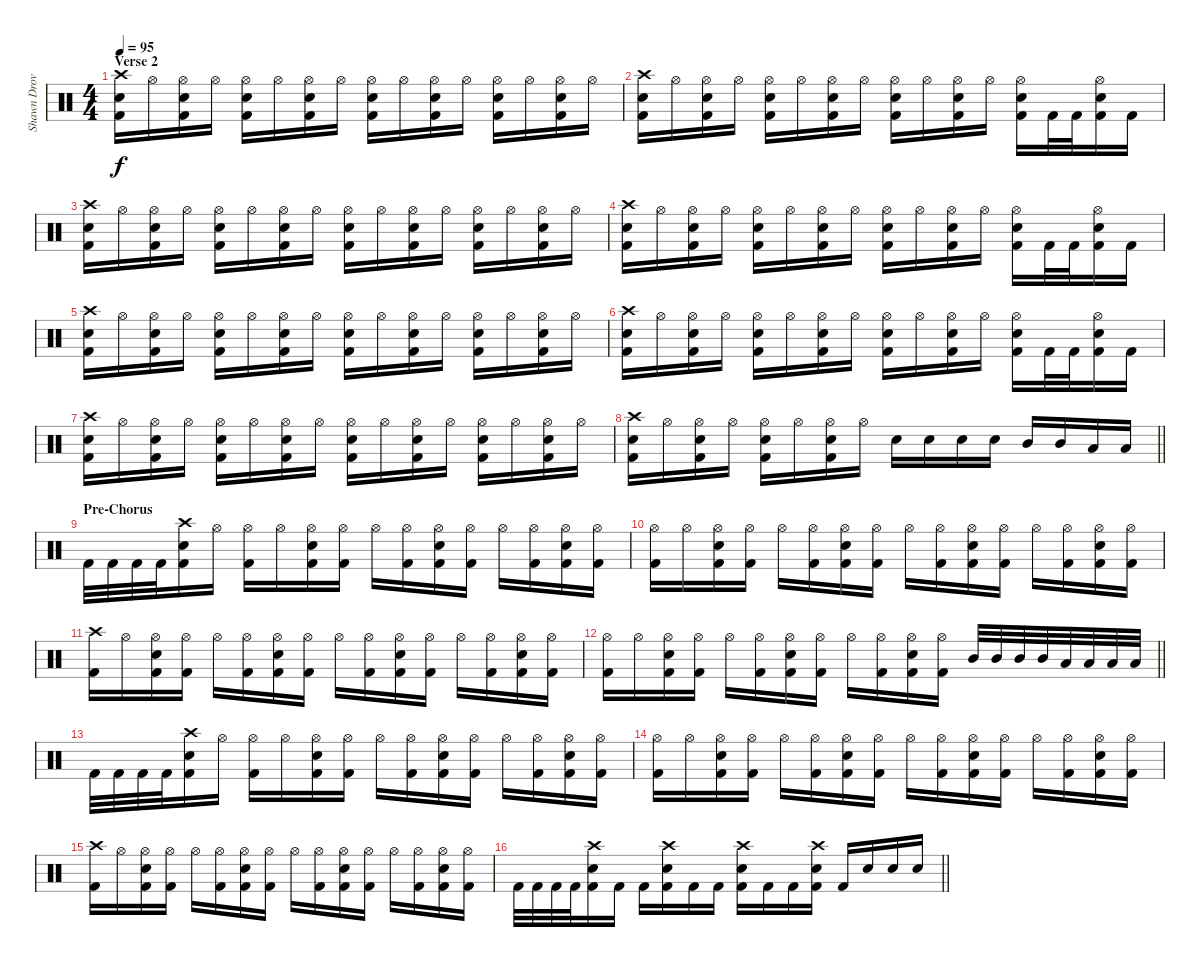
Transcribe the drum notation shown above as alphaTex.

\track ("Shawn Drover " "Shawn Drov") {instrument percussion}
\staff {score}
\articulation defaults
\ts (4 4)
\section ("" "Verse 2")
\tempo 95
\clef neutral
\ks c
("Kick (hit) 2" "Snare (hit) 2" "Crash high (hit)").16{dy f} "Hi-Hat (open)".16 ("Kick (hit) 2" "Snare (hit) 2" "Hi-Hat (open)").16 "Hi-Hat (open)".16 ("Kick (hit) 2" "Snare (hit) 2" "Hi-Hat (open)").16 "Hi-Hat (open)".16 ("Kick (hit) 2" "Snare (hit) 2" "Hi-Hat (open)").16 "Hi-Hat (open)".16 ("Kick (hit) 2" "Snare (hit) 2" "Hi-Hat (open)").16 "Hi-Hat (open)".16 ("Kick (hit) 2" "Snare (hit) 2" "Hi-Hat (open)").16 "Hi-Hat (open)".16 ("Kick (hit) 2" "Snare (hit) 2" "Hi-Hat (open)").16 "Hi-Hat (open)".16 ("Kick (hit) 2" "Snare (hit) 2" "Hi-Hat (open)").16 "Hi-Hat (open)".16 |
("Kick (hit) 2" "Snare (hit) 2" "Crash high (hit)").16 "Hi-Hat (open)".16 ("Kick (hit) 2" "Snare (hit) 2" "Hi-Hat (open)").16 "Hi-Hat (open)".16 ("Kick (hit) 2" "Snare (hit) 2" "Hi-Hat (open)").16 "Hi-Hat (open)".16 ("Kick (hit) 2" "Snare (hit) 2" "Hi-Hat (open)").16 "Hi-Hat (open)".16 ("Kick (hit) 2" "Snare (hit) 2" "Hi-Hat (open)").16 "Hi-Hat (open)".16 ("Kick (hit) 2" "Snare (hit) 2" "Hi-Hat (open)").16 "Hi-Hat (open)".16 ("Kick (hit) 2" "Snare (hit) 2" "Hi-Hat (open)").16 "Kick (hit) 2".32 "Kick (hit) 2".32 ("Kick (hit) 2" "Snare (hit) 2" "Hi-Hat (open)").16 "Kick (hit) 2".16 |
("Kick (hit) 2" "Snare (hit) 2" "Crash high (hit)").16 "Hi-Hat (open)".16 ("Kick (hit) 2" "Snare (hit) 2" "Hi-Hat (open)").16 "Hi-Hat (open)".16 ("Kick (hit) 2" "Snare (hit) 2" "Hi-Hat (open)").16 "Hi-Hat (open)".16 ("Kick (hit) 2" "Snare (hit) 2" "Hi-Hat (open)").16 "Hi-Hat (open)".16 ("Kick (hit) 2" "Snare (hit) 2" "Hi-Hat (open)").16 "Hi-Hat (open)".16 ("Kick (hit) 2" "Snare (hit) 2" "Hi-Hat (open)").16 "Hi-Hat (open)".16 ("Kick (hit) 2" "Snare (hit) 2" "Hi-Hat (open)").16 "Hi-Hat (open)".16 ("Kick (hit) 2" "Snare (hit) 2" "Hi-Hat (open)").16 "Hi-Hat (open)".16 |
("Kick (hit) 2" "Snare (hit) 2" "Crash high (hit)").16 "Hi-Hat (open)".16 ("Kick (hit) 2" "Snare (hit) 2" "Hi-Hat (open)").16 "Hi-Hat (open)".16 ("Kick (hit) 2" "Snare (hit) 2" "Hi-Hat (open)").16 "Hi-Hat (open)".16 ("Kick (hit) 2" "Snare (hit) 2" "Hi-Hat (open)").16 "Hi-Hat (open)".16 ("Kick (hit) 2" "Snare (hit) 2" "Hi-Hat (open)").16 "Hi-Hat (open)".16 ("Kick (hit) 2" "Snare (hit) 2" "Hi-Hat (open)").16 "Hi-Hat (open)".16 ("Kick (hit) 2" "Snare (hit) 2" "Hi-Hat (open)").16 "Kick (hit) 2".32 "Kick (hit) 2".32 ("Kick (hit) 2" "Snare (hit) 2" "Hi-Hat (open)").16 "Kick (hit) 2".16 |
("Kick (hit) 2" "Snare (hit) 2" "Crash high (hit)").16 "Hi-Hat (open)".16 ("Kick (hit) 2" "Snare (hit) 2" "Hi-Hat (open)").16 "Hi-Hat (open)".16 ("Kick (hit) 2" "Snare (hit) 2" "Hi-Hat (open)").16 "Hi-Hat (open)".16 ("Kick (hit) 2" "Snare (hit) 2" "Hi-Hat (open)").16 "Hi-Hat (open)".16 ("Kick (hit) 2" "Snare (hit) 2" "Hi-Hat (open)").16 "Hi-Hat (open)".16 ("Kick (hit) 2" "Snare (hit) 2" "Hi-Hat (open)").16 "Hi-Hat (open)".16 ("Kick (hit) 2" "Snare (hit) 2" "Hi-Hat (open)").16 "Hi-Hat (open)".16 ("Kick (hit) 2" "Snare (hit) 2" "Hi-Hat (open)").16 "Hi-Hat (open)".16 |
("Kick (hit) 2" "Snare (hit) 2" "Crash high (hit)").16 "Hi-Hat (open)".16 ("Kick (hit) 2" "Snare (hit) 2" "Hi-Hat (open)").16 "Hi-Hat (open)".16 ("Kick (hit) 2" "Snare (hit) 2" "Hi-Hat (open)").16 "Hi-Hat (open)".16 ("Kick (hit) 2" "Snare (hit) 2" "Hi-Hat (open)").16 "Hi-Hat (open)".16 ("Kick (hit) 2" "Snare (hit) 2" "Hi-Hat (open)").16 "Hi-Hat (open)".16 ("Kick (hit) 2" "Snare (hit) 2" "Hi-Hat (open)").16 "Hi-Hat (open)".16 ("Kick (hit) 2" "Snare (hit) 2" "Hi-Hat (open)").16 "Kick (hit) 2".32 "Kick (hit) 2".32 ("Kick (hit) 2" "Snare (hit) 2" "Hi-Hat (open)").16 "Kick (hit) 2".16 |
("Kick (hit) 2" "Snare (hit) 2" "Crash high (hit)").16 "Hi-Hat (open)".16 ("Kick (hit) 2" "Snare (hit) 2" "Hi-Hat (open)").16 "Hi-Hat (open)".16 ("Kick (hit) 2" "Snare (hit) 2" "Hi-Hat (open)").16 "Hi-Hat (open)".16 ("Kick (hit) 2" "Snare (hit) 2" "Hi-Hat (open)").16 "Hi-Hat (open)".16 ("Kick (hit) 2" "Snare (hit) 2" "Hi-Hat (open)").16 "Hi-Hat (open)".16 ("Kick (hit) 2" "Snare (hit) 2" "Hi-Hat (open)").16 "Hi-Hat (open)".16 ("Kick (hit) 2" "Snare (hit) 2" "Hi-Hat (open)").16 "Hi-Hat (open)".16 ("Kick (hit) 2" "Snare (hit) 2" "Hi-Hat (open)").16 "Hi-Hat (open)".16 |
\barLineRight lightlight
("Kick (hit) 2" "Snare (hit) 2" "Crash high (hit)").16 "Hi-Hat (open)".16 ("Kick (hit) 2" "Snare (hit) 2" "Hi-Hat (open)").16 "Hi-Hat (open)".16 ("Kick (hit) 2" "Snare (hit) 2" "Hi-Hat (open)").16 "Hi-Hat (open)".16 ("Kick (hit) 2" "Snare (hit) 2" "Hi-Hat (open)").16 "Hi-Hat (open)".16 "Snare (hit) 2".16 "Snare (hit) 2".16 "Snare (hit) 2".16 "Snare (hit) 2".16 "Mid Tom (hit)".16 "Mid Tom (hit)".16 "Low Tom (hit)".16 "Low Tom (hit)".16 |
\section ("" "Pre-Chorus")
"Kick (hit) 2".32 "Kick (hit) 2".32 "Kick (hit) 2".32 "Kick (hit) 2".32 ("Kick (hit) 2" "Snare (hit) 2" "Crash high (hit)").16 "Hi-Hat (open)".16 ("Kick (hit) 2" "Hi-Hat (open)").16 "Hi-Hat (open)".16 ("Kick (hit) 2" "Snare (hit) 2" "Hi-Hat (open)").16 ("Kick (hit) 2" "Hi-Hat (open)").16 "Hi-Hat (open)".16 ("Kick (hit) 2" "Hi-Hat (open)").16 ("Kick (hit) 2" "Snare (hit) 2" "Hi-Hat (open)").16 ("Kick (hit) 2" "Hi-Hat (open)").16 "Hi-Hat (open)".16 ("Kick (hit) 2" "Hi-Hat (open)").16 ("Kick (hit) 2" "Snare (hit) 2" "Hi-Hat (open)").16 ("Kick (hit) 2" "Hi-Hat (open)").16 |
("Kick (hit) 2" "Hi-Hat (open)").16 "Hi-Hat (open)".16 ("Kick (hit) 2" "Snare (hit) 2" "Hi-Hat (open)").16 ("Kick (hit) 2" "Hi-Hat (open)").16 "Hi-Hat (open)".16 ("Kick (hit) 2" "Hi-Hat (open)").16 ("Kick (hit) 2" "Snare (hit) 2" "Hi-Hat (open)").16 ("Kick (hit) 2" "Hi-Hat (open)").16 "Hi-Hat (open)".16 ("Kick (hit) 2" "Hi-Hat (open)").16 ("Kick (hit) 2" "Snare (hit) 2" "Hi-Hat (open)").16 ("Kick (hit) 2" "Hi-Hat (open)").16 "Hi-Hat (open)".16 ("Kick (hit) 2" "Hi-Hat (open)").16 ("Kick (hit) 2" "Snare (hit) 2" "Hi-Hat (open)").16 ("Kick (hit) 2" "Hi-Hat (open)").16 |
("Kick (hit) 2" "Crash high (hit)").16 "Hi-Hat (open)".16 ("Kick (hit) 2" "Snare (hit) 2" "Hi-Hat (open)").16 ("Kick (hit) 2" "Hi-Hat (open)").16 "Hi-Hat (open)".16 ("Kick (hit) 2" "Hi-Hat (open)").16 ("Kick (hit) 2" "Snare (hit) 2" "Hi-Hat (open)").16 ("Kick (hit) 2" "Hi-Hat (open)").16 "Hi-Hat (open)".16 ("Kick (hit) 2" "Hi-Hat (open)").16 ("Kick (hit) 2" "Snare (hit) 2" "Hi-Hat (open)").16 ("Kick (hit) 2" "Hi-Hat (open)").16 "Hi-Hat (open)".16 ("Kick (hit) 2" "Hi-Hat (open)").16 ("Kick (hit) 2" "Snare (hit) 2" "Hi-Hat (open)").16 ("Kick (hit) 2" "Hi-Hat (open)").16 |
\barLineRight lightlight
("Kick (hit) 2" "Hi-Hat (open)").16 "Hi-Hat (open)".16 ("Kick (hit) 2" "Snare (hit) 2" "Hi-Hat (open)").16 ("Kick (hit) 2" "Hi-Hat (open)").16 "Hi-Hat (open)".16 ("Kick (hit) 2" "Hi-Hat (open)").16 ("Kick (hit) 2" "Snare (hit) 2" "Hi-Hat (open)").16 ("Kick (hit) 2" "Hi-Hat (open)").16 "Hi-Hat (open)".16 ("Kick (hit) 2" "Hi-Hat (open)").16 ("Kick (hit) 2" "Snare (hit) 2" "Hi-Hat (open)").16 ("Kick (hit) 2" "Hi-Hat (open)").16 "Mid Tom (hit)".32 "Mid Tom (hit)".32 "Mid Tom (hit)".32 "Mid Tom (hit)".32 "Low Tom (hit)".32 "Low Tom (hit)".32 "Low Tom (hit)".32 "Low Tom (hit)".32 |
"Kick (hit) 2".32 "Kick (hit) 2".32 "Kick (hit) 2".32 "Kick (hit) 2".32 ("Kick (hit) 2" "Snare (hit) 2" "Crash high (hit)").16 "Hi-Hat (open)".16 ("Kick (hit) 2" "Hi-Hat (open)").16 "Hi-Hat (open)".16 ("Kick (hit) 2" "Snare (hit) 2" "Hi-Hat (open)").16 ("Kick (hit) 2" "Hi-Hat (open)").16 "Hi-Hat (open)".16 ("Kick (hit) 2" "Hi-Hat (open)").16 ("Kick (hit) 2" "Snare (hit) 2" "Hi-Hat (open)").16 ("Kick (hit) 2" "Hi-Hat (open)").16 "Hi-Hat (open)".16 ("Kick (hit) 2" "Hi-Hat (open)").16 ("Kick (hit) 2" "Snare (hit) 2" "Hi-Hat (open)").16 ("Kick (hit) 2" "Hi-Hat (open)").16 |
("Kick (hit) 2" "Hi-Hat (open)").16 "Hi-Hat (open)".16 ("Kick (hit) 2" "Snare (hit) 2" "Hi-Hat (open)").16 ("Kick (hit) 2" "Hi-Hat (open)").16 "Hi-Hat (open)".16 ("Kick (hit) 2" "Hi-Hat (open)").16 ("Kick (hit) 2" "Snare (hit) 2" "Hi-Hat (open)").16 ("Kick (hit) 2" "Hi-Hat (open)").16 "Hi-Hat (open)".16 ("Kick (hit) 2" "Hi-Hat (open)").16 ("Kick (hit) 2" "Snare (hit) 2" "Hi-Hat (open)").16 ("Kick (hit) 2" "Hi-Hat (open)").16 "Hi-Hat (open)".16 ("Kick (hit) 2" "Hi-Hat (open)").16 ("Kick (hit) 2" "Snare (hit) 2" "Hi-Hat (open)").16 ("Kick (hit) 2" "Hi-Hat (open)").16 |
("Kick (hit) 2" "Crash high (hit)").16 "Hi-Hat (open)".16 ("Kick (hit) 2" "Snare (hit) 2" "Hi-Hat (open)").16 ("Kick (hit) 2" "Hi-Hat (open)").16 "Hi-Hat (open)".16 ("Kick (hit) 2" "Hi-Hat (open)").16 ("Kick (hit) 2" "Snare (hit) 2" "Hi-Hat (open)").16 ("Kick (hit) 2" "Hi-Hat (open)").16 "Hi-Hat (open)".16 ("Kick (hit) 2" "Hi-Hat (open)").16 ("Kick (hit) 2" "Snare (hit) 2" "Hi-Hat (open)").16 ("Kick (hit) 2" "Hi-Hat (open)").16 "Hi-Hat (open)".16 ("Kick (hit) 2" "Hi-Hat (open)").16 ("Kick (hit) 2" "Snare (hit) 2" "Hi-Hat (open)").16 ("Kick (hit) 2" "Hi-Hat (open)").16 |
\barLineRight lightlight "Kick (hit) 2".32 "Kick (hit) 2".32 "Kick (hit) 2".32 "Kick (hit) 2".32
("Kick (hit) 2" "Snare (hit) 2" "Crash high (hit)").16 "Kick (hit) 2".16 "Kick (hit) 2".16 ("Kick (hit) 2" "Snare (hit) 2" "Crash high (hit)").16 "Kick (hit) 2".16 "Kick (hit) 2".16 ("Kick (hit) 2" "Snare (hit) 2" "Crash high (hit)").16 "Kick (hit) 2".16 "Kick (hit) 2".16 ("Kick (hit) 2" "Snare (hit) 2" "Crash high (hit)").16 "Kick (hit) 2".16 "Snare (hit) 2".16 "Snare (hit) 2".16 "Snare (hit) 2".16
